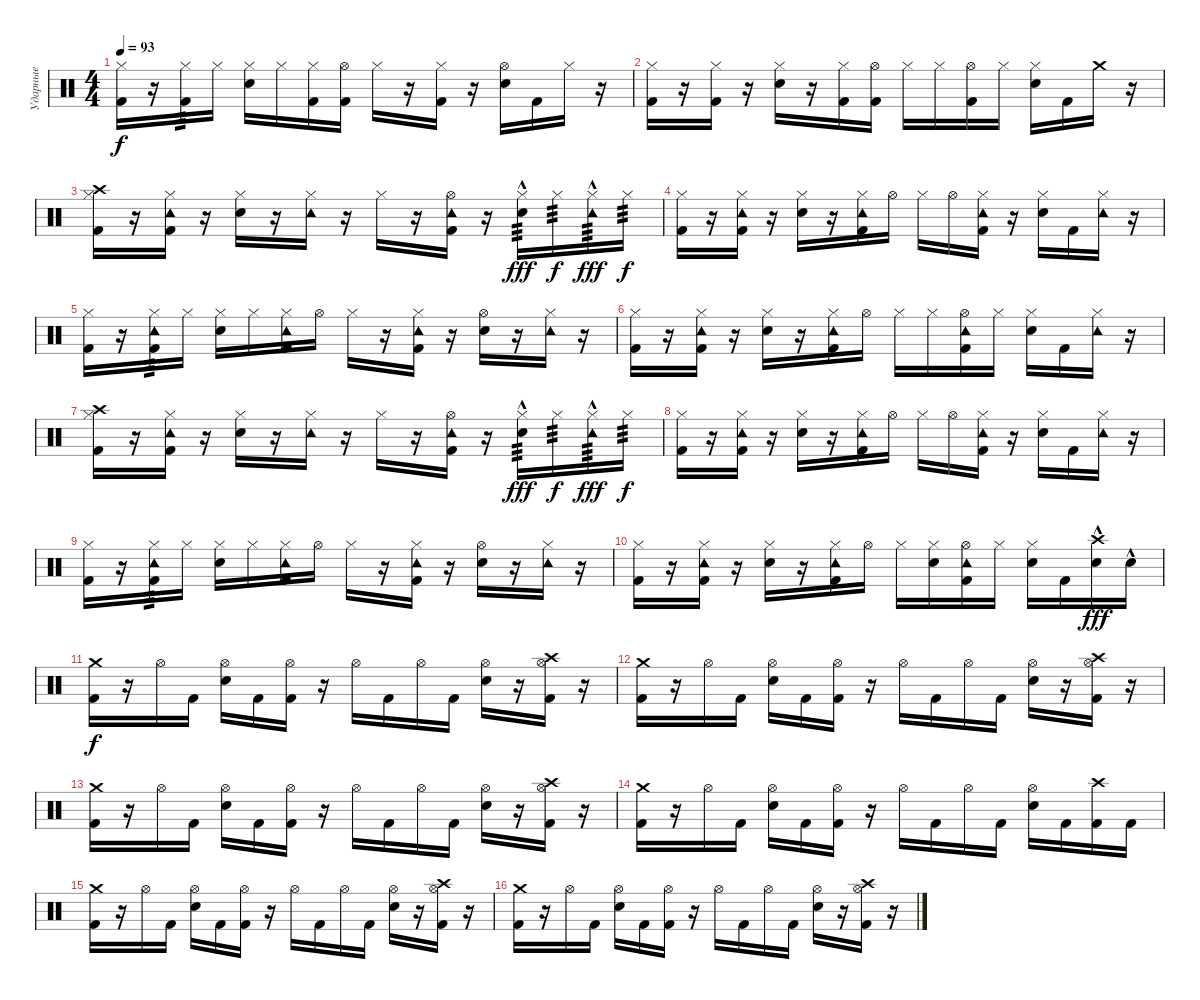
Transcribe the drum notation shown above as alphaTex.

\track ("Ударные" "Ударные") {instrument percussion}
\staff {score}
\articulation defaults
\ts (4 4)
\tempo 93
\clef neutral
\ks c
("Hi-Hat (closed)" "Kick (hit) 2").16{dy f} r.16 ("Hi-Hat (closed)" "Kick (hit) 2").16{tp 3} "Hi-Hat (closed)".16 ("Hi-Hat (closed)" "Electric Snare (hit)").16 "Hi-Hat (closed)".16 ("Hi-Hat (closed)" "Kick (hit) 2").16 ("Hi-Hat (open)" "Kick (hit) 2").16 "Hi-Hat (closed)".16 r.16 ("Hi-Hat (closed)" "Kick (hit) 2").16 r.16 ("Hi-Hat (open)" "Electric Snare (hit)").16 "Kick (hit) 2".16 "Hi-Hat (closed)".16 r.16 |
("Hi-Hat (closed)" "Kick (hit) 2").16 r.16 ("Hi-Hat (closed)" "Kick (hit) 2").16 r.16 ("Hi-Hat (closed)" "Electric Snare (hit)").16 r.16 ("Hi-Hat (closed)" "Kick (hit) 2").16 ("Hi-Hat (open)" "Kick (hit) 2").16 "Hi-Hat (closed)".16 "Hi-Hat (closed)".16 ("Hi-Hat (open)" "Kick (hit) 2").16 "Hi-Hat (closed)".16 ("Hi-Hat (closed)" "Electric Snare (hit)").16 "Kick (hit) 2".16 "Crash medium (hit)".16 r.16 |
("Crash high (hit)" "Hi-Hat (closed)" "Kick (hit) 2").16 r.16 ("Tambourine (hit)" "Hi-Hat (closed)" "Kick (hit) 2").16 r.16 ("Hi-Hat (closed)" "Electric Snare (hit)").16 r.16 ("Tambourine (hit)" "Hi-Hat (closed)").16 r.16 "Hi-Hat (closed)".16 r.16 ("Tambourine (hit)" "Hi-Hat (open)" "Kick (hit) 2").16 r.16 ("Hi-Hat (closed)"{hac} "Electric Snare (hit)").16{tp 3 dy fff} "Hi-Hat (closed)".16{tp 3 dy f} ("Tambourine (hit)" "Hi-Hat (closed)"{hac}).16{tp 3 dy fff} "Hi-Hat (closed)".16{tp 3 dy f} |
("Hi-Hat (closed)" "Kick (hit) 2").16 r.16 ("Tambourine (hit)" "Hi-Hat (closed)" "Kick (hit) 2").16 r.16 ("Hi-Hat (closed)" "Electric Snare (hit)").16 r.16 ("Tambourine (hit)" "Hi-Hat (closed)" "Kick (hit) 2").16 "Hi-Hat (open)".16 "Hi-Hat (closed)".16 "Hi-Hat (open)".16 ("Tambourine (hit)" "Hi-Hat (closed)" "Kick (hit) 2").16 r.16 ("Hi-Hat (closed)" "Electric Snare (hit)").16 "Kick (hit) 2".16 ("Tambourine (hit)" "Hi-Hat (closed)").16 r.16 |
("Hi-Hat (closed)" "Kick (hit) 2").16 r.16 ("Tambourine (hit)" "Hi-Hat (closed)" "Kick (hit) 2").16{tp 3} "Hi-Hat (closed)".16 ("Hi-Hat (closed)" "Electric Snare (hit)").16 "Hi-Hat (closed)".16 ("Tambourine (hit)" "Hi-Hat (closed)" "Kick (hit) 2").16 "Hi-Hat (open)".16 "Hi-Hat (closed)".16 r.16 ("Tambourine (hit)" "Hi-Hat (closed)" "Kick (hit) 2").16 r.16 ("Hi-Hat (open)" "Electric Snare (hit)").16 r.16 ("Tambourine (hit)" "Hi-Hat (closed)").16 r.16 |
("Hi-Hat (closed)" "Kick (hit) 2").16 r.16 ("Tambourine (hit)" "Hi-Hat (closed)" "Kick (hit) 2").16 r.16 ("Hi-Hat (closed)" "Electric Snare (hit)").16 r.16 ("Tambourine (hit)" "Hi-Hat (closed)" "Kick (hit) 2").16 "Hi-Hat (open)".16 "Hi-Hat (closed)".16 "Hi-Hat (closed)".16 ("Tambourine (hit)" "Hi-Hat (open)" "Kick (hit) 2").16 "Hi-Hat (closed)".16 ("Hi-Hat (closed)" "Electric Snare (hit)").16 "Kick (hit) 2".16 ("Tambourine (hit)" "Hi-Hat (closed)").16 r.16 |
("Crash high (hit)" "Hi-Hat (closed)" "Kick (hit) 2").16 r.16 ("Tambourine (hit)" "Hi-Hat (closed)" "Kick (hit) 2").16 r.16 ("Hi-Hat (closed)" "Electric Snare (hit)").16 r.16 ("Tambourine (hit)" "Hi-Hat (closed)").16 r.16 "Hi-Hat (closed)".16 r.16 ("Tambourine (hit)" "Hi-Hat (open)" "Kick (hit) 2").16 r.16 ("Hi-Hat (closed)"{hac} "Electric Snare (hit)").16{tp 3 dy fff} "Hi-Hat (closed)".16{tp 3 dy f} ("Tambourine (hit)" "Hi-Hat (closed)"{hac}).16{tp 3 dy fff} "Hi-Hat (closed)".16{tp 3 dy f} |
("Hi-Hat (closed)" "Kick (hit) 2").16 r.16 ("Tambourine (hit)" "Hi-Hat (closed)" "Kick (hit) 2").16 r.16 ("Hi-Hat (closed)" "Electric Snare (hit)").16 r.16 ("Tambourine (hit)" "Hi-Hat (closed)" "Kick (hit) 2").16 "Hi-Hat (open)".16 "Hi-Hat (closed)".16 "Hi-Hat (open)".16 ("Tambourine (hit)" "Hi-Hat (closed)" "Kick (hit) 2").16 r.16 ("Hi-Hat (closed)" "Electric Snare (hit)").16 "Kick (hit) 2".16 ("Tambourine (hit)" "Hi-Hat (closed)").16 r.16 |
("Hi-Hat (closed)" "Kick (hit) 2").16 r.16 ("Tambourine (hit)" "Hi-Hat (closed)" "Kick (hit) 2").16{tp 3} "Hi-Hat (closed)".16 ("Hi-Hat (closed)" "Electric Snare (hit)").16 "Hi-Hat (closed)".16 ("Tambourine (hit)" "Hi-Hat (closed)" "Kick (hit) 2").16 "Hi-Hat (open)".16 "Hi-Hat (closed)".16 r.16 ("Tambourine (hit)" "Hi-Hat (closed)" "Kick (hit) 2").16 r.16 ("Hi-Hat (open)" "Electric Snare (hit)").16 r.16 ("Tambourine (hit)" "Hi-Hat (closed)").16 r.16 |
("Hi-Hat (closed)" "Kick (hit) 2").16 r.16 ("Tambourine (hit)" "Hi-Hat (closed)" "Kick (hit) 2").16 r.16 ("Hi-Hat (closed)" "Electric Snare (hit)").16 r.16 ("Tambourine (hit)" "Hi-Hat (closed)" "Kick (hit) 2").16 "Hi-Hat (open)".16 "Hi-Hat (closed)".16 ("Hi-Hat (closed)" "Electric Snare (hit)").16 ("Tambourine (hit)" "Hi-Hat (open)" "Kick (hit) 2").16 "Hi-Hat (closed)".16 ("Hi-Hat (closed)" "Electric Snare (hit)").16 "Kick (hit) 2".16 ("Crash high (hit)"{hac} "Electric Snare (hit)"{hac}).16{dy fff} "Electric Snare (hit)"{hac}.16 |
("Crash medium (hit)" "Kick (hit) 2").16{dy f} r.16 "Hi-Hat (open)".16 "Kick (hit) 2".16 ("Hi-Hat (open)" "Electric Snare (hit)").16 "Kick (hit) 2".16 ("Hi-Hat (open)" "Kick (hit) 2").16 r.16 "Hi-Hat (open)".16 "Kick (hit) 2".16 "Hi-Hat (open)".16 "Kick (hit) 2".16 ("Hi-Hat (open)" "Electric Snare (hit)").16 r.16 ("Crash high (hit)" "Hi-Hat (open)" "Kick (hit) 2").16 r.16 |
("Crash medium (hit)" "Kick (hit) 2").16 r.16 "Hi-Hat (open)".16 "Kick (hit) 2".16 ("Hi-Hat (open)" "Electric Snare (hit)").16 "Kick (hit) 2".16 ("Hi-Hat (open)" "Kick (hit) 2").16 r.16 "Hi-Hat (open)".16 "Kick (hit) 2".16 "Hi-Hat (open)".16 "Kick (hit) 2".16 ("Hi-Hat (open)" "Electric Snare (hit)").16 r.16 ("Crash high (hit)" "Hi-Hat (open)" "Kick (hit) 2").16 r.16 |
("Crash medium (hit)" "Kick (hit) 2").16 r.16 "Hi-Hat (open)".16 "Kick (hit) 2".16 ("Hi-Hat (open)" "Electric Snare (hit)").16 "Kick (hit) 2".16 ("Hi-Hat (open)" "Kick (hit) 2").16 r.16 "Hi-Hat (open)".16 "Kick (hit) 2".16 "Hi-Hat (open)".16 "Kick (hit) 2".16 ("Hi-Hat (open)" "Electric Snare (hit)").16 r.16 ("Crash high (hit)" "Hi-Hat (open)" "Kick (hit) 2").16 r.16 |
("Crash medium (hit)" "Kick (hit) 2").16 r.16 "Hi-Hat (open)".16 "Kick (hit) 2".16 ("Hi-Hat (open)" "Electric Snare (hit)").16 "Kick (hit) 2".16 ("Hi-Hat (open)" "Kick (hit) 2").16 r.16 "Hi-Hat (open)".16 "Kick (hit) 2".16 "Hi-Hat (open)".16 "Kick (hit) 2".16 ("Hi-Hat (open)" "Electric Snare (hit)").16 "Kick (hit) 2".16 ("Crash high (hit)" "Kick (hit) 2").16 "Kick (hit) 2".16 |
("Crash medium (hit)" "Kick (hit) 2").16 r.16 "Hi-Hat (open)".16 "Kick (hit) 2".16 ("Hi-Hat (open)" "Electric Snare (hit)").16 "Kick (hit) 2".16 ("Hi-Hat (open)" "Kick (hit) 2").16 r.16 "Hi-Hat (open)".16 "Kick (hit) 2".16 "Hi-Hat (open)".16 "Kick (hit) 2".16 ("Hi-Hat (open)" "Electric Snare (hit)").16 r.16 ("Crash high (hit)" "Hi-Hat (open)" "Kick (hit) 2").16 r.16 |
("Crash medium (hit)" "Kick (hit) 2").16 r.16 "Hi-Hat (open)".16 "Kick (hit) 2".16 ("Hi-Hat (open)" "Electric Snare (hit)").16 "Kick (hit) 2".16 ("Hi-Hat (open)" "Kick (hit) 2").16 r.16 "Hi-Hat (open)".16 "Kick (hit) 2".16 "Hi-Hat (open)".16 "Kick (hit) 2".16 ("Hi-Hat (open)" "Electric Snare (hit)").16 r.16 ("Crash high (hit)" "Hi-Hat (open)" "Kick (hit) 2").16 r.16
